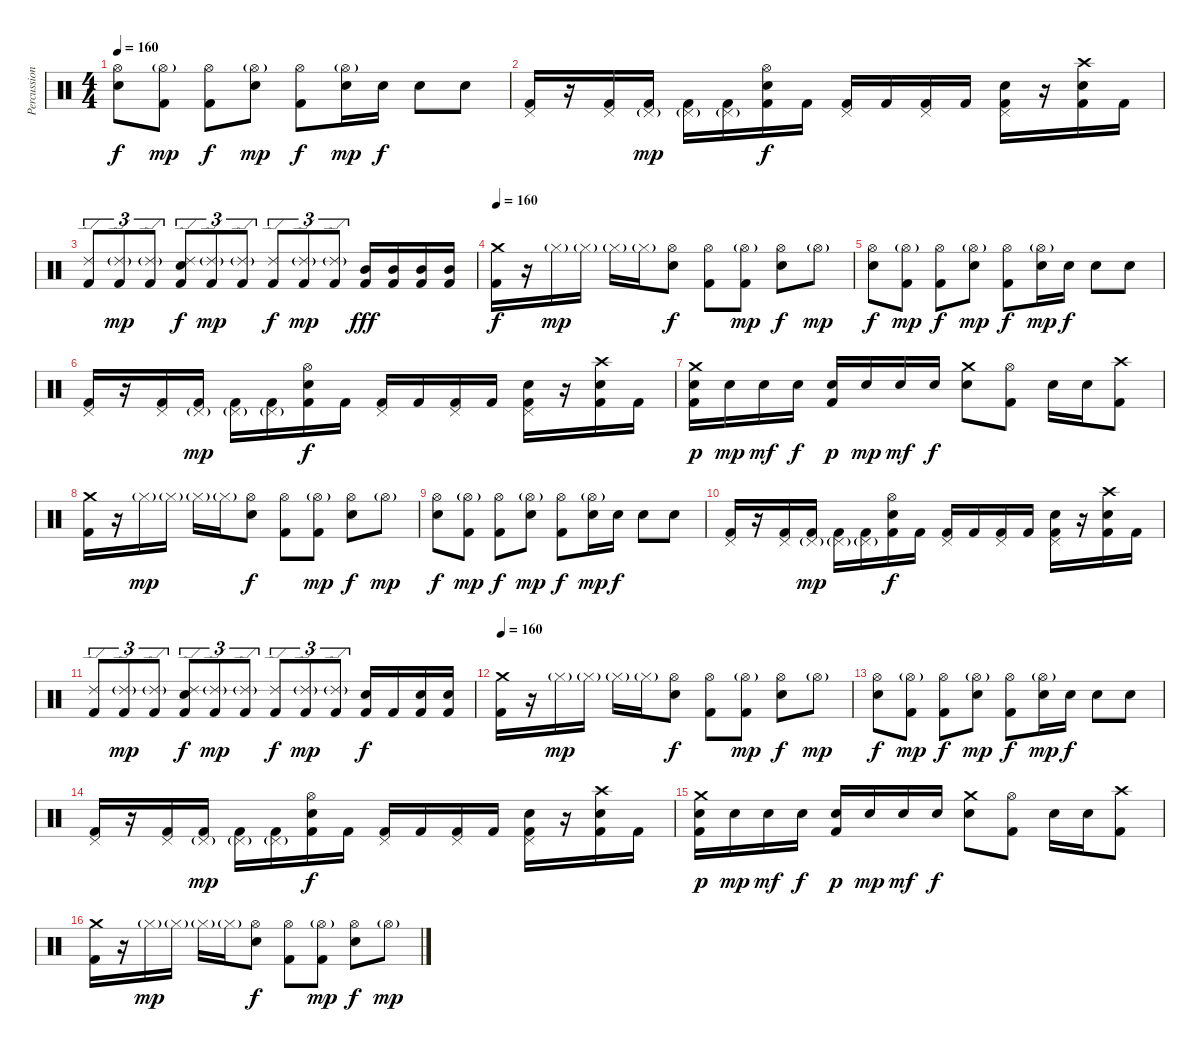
\track ("Percussions" "Percussion") {instrument percussion}
\staff {score}
\articulation defaults
\ts (4 4)
\tempo 160
\clef neutral
\ks c
("Hi-Hat (open)" "Electric Snare (hit)").8{dy f} ("Hi-Hat (open)"{g} "Kick (hit) 2").8{dy mp} ("Hi-Hat (open)" "Kick (hit) 2").8{dy f} ("Hi-Hat (open)"{g} "Electric Snare (hit)").8{dy mp} ("Hi-Hat (open)" "Kick (hit) 2").8{dy f} ("Hi-Hat (open)"{g} "Electric Snare (hit)").16{dy mp} "Electric Snare (hit)".16{dy f} "Electric Snare (hit)".8 "Snare (hit) 2".8 |
("Kick (hit) 2" "Pedal Hi-Hat (hit)").16 r.16 ("Kick (hit) 2" "Pedal Hi-Hat (hit)").16 ("Kick (hit) 2" "Pedal Hi-Hat (hit)"{g}).16{dy mp} ("Kick (hit) 2" "Pedal Hi-Hat (hit)"{g}).16 ("Kick (hit) 2" "Pedal Hi-Hat (hit)"{g}).16 ("Kick (hit) 2" "Electric Snare (hit)" "Hi-Hat (open)").16{dy f} "Kick (hit) 2".16 ("Kick (hit) 2" "Pedal Hi-Hat (hit)").16 "Kick (hit) 2".16 ("Kick (hit) 2" "Pedal Hi-Hat (hit)").16 "Kick (hit) 2".16 ("Kick (hit) 2" "Electric Snare (hit)" "Pedal Hi-Hat (hit)").16 r.16 ("Kick (hit) 2" "Electric Snare (hit)" "Crash high (hit)").16 "Kick (hit) 2".16 |
("Kick (hit) 2" "Ride (edge) 2").8{tu (3 2)} ("Kick (hit) 2" "Ride (edge) 2"{g}).8{tu (3 2) dy mp} ("Kick (hit) 2" "Ride (edge) 2"{g}).8{tu (3 2)} ("Kick (hit) 2" "Electric Snare (hit)" "Ride (edge) 2").8{tu (3 2) dy f} ("Kick (hit) 2" "Ride (edge) 2"{g}).8{tu (3 2) dy mp} ("Kick (hit) 2" "Ride (edge) 2"{g}).8{tu (3 2)} ("Kick (hit) 2" "Ride (edge) 2").8{tu (3 2) dy f} ("Kick (hit) 2" "Ride (edge) 2"{g}).8{tu (3 2) dy mp} ("Kick (hit) 2" "Ride (edge) 2"{g}).8{tu (3 2)} ("Kick (hit) 2" "Mid Tom (hit)").16{dy fff} ("Kick (hit) 2" "Mid Tom (hit)").16 ("Kick (hit) 2" "Mid Tom (hit)").16 ("Kick (hit) 2" "Mid Tom (hit)").16 |
\tempo 160
("Crash medium (hit)" "Kick (hit) 2").16{dy f} r.16 "Hi-Hat (closed)"{g}.16{dy mp} "Hi-Hat (closed)"{g}.16 "Hi-Hat (closed)"{g}.16 "Hi-Hat (closed)"{g}.16 ("Hi-Hat (open)" "Electric Snare (hit)").8{dy f} ("Hi-Hat (open)" "Kick (hit) 2").8 ("Hi-Hat (open)"{g} "Kick (hit) 2").8{dy mp} ("Hi-Hat (open)" "Electric Snare (hit)").8{dy f} "Hi-Hat (open)"{g}.8{dy mp} |
("Hi-Hat (open)" "Electric Snare (hit)").8{dy f} ("Hi-Hat (open)"{g} "Kick (hit) 2").8{dy mp} ("Hi-Hat (open)" "Kick (hit) 2").8{dy f} ("Hi-Hat (open)"{g} "Electric Snare (hit)").8{dy mp} ("Hi-Hat (open)" "Kick (hit) 2").8{dy f} ("Hi-Hat (open)"{g} "Electric Snare (hit)").16{dy mp} "Electric Snare (hit)".16{dy f} "Electric Snare (hit)".8 "Snare (hit) 2".8 |
("Kick (hit) 2" "Pedal Hi-Hat (hit)").16 r.16 ("Kick (hit) 2" "Pedal Hi-Hat (hit)").16 ("Kick (hit) 2" "Pedal Hi-Hat (hit)"{g}).16{dy mp} ("Kick (hit) 2" "Pedal Hi-Hat (hit)"{g}).16 ("Kick (hit) 2" "Pedal Hi-Hat (hit)"{g}).16 ("Kick (hit) 2" "Electric Snare (hit)" "Hi-Hat (open)").16{dy f} "Kick (hit) 2".16 ("Kick (hit) 2" "Pedal Hi-Hat (hit)").16 "Kick (hit) 2".16 ("Kick (hit) 2" "Pedal Hi-Hat (hit)").16 "Kick (hit) 2".16 ("Kick (hit) 2" "Electric Snare (hit)" "Pedal Hi-Hat (hit)").16 r.16 ("Kick (hit) 2" "Electric Snare (hit)" "Crash high (hit)").16 "Kick (hit) 2".16 |
("Electric Snare (hit)" "Crash medium (hit)" "Kick (hit) 2").16{dy p} "Electric Snare (hit)".16{dy mp} "Electric Snare (hit)".16{dy mf} "Electric Snare (hit)".16{dy f} ("Electric Snare (hit)" "Kick (hit) 2").16{dy p} "Electric Snare (hit)".16{dy mp} "Electric Snare (hit)".16{dy mf} "Electric Snare (hit)".16{dy f} ("Electric Snare (hit)" "Crash medium (hit)").8 ("Kick (hit) 2" "Hi-Hat (open)").8 "Electric Snare (hit)".16 "Electric Snare (hit)".16 ("Kick (hit) 2" "Crash high (hit)").8 |
("Crash medium (hit)" "Kick (hit) 2").16 r.16 "Hi-Hat (closed)"{g}.16{dy mp} "Hi-Hat (closed)"{g}.16 "Hi-Hat (closed)"{g}.16 "Hi-Hat (closed)"{g}.16 ("Hi-Hat (open)" "Electric Snare (hit)").8{dy f} ("Hi-Hat (open)" "Kick (hit) 2").8 ("Hi-Hat (open)"{g} "Kick (hit) 2").8{dy mp} ("Hi-Hat (open)" "Electric Snare (hit)").8{dy f} "Hi-Hat (open)"{g}.8{dy mp} |
("Hi-Hat (open)" "Electric Snare (hit)").8{dy f} ("Hi-Hat (open)"{g} "Kick (hit) 2").8{dy mp} ("Hi-Hat (open)" "Kick (hit) 2").8{dy f} ("Hi-Hat (open)"{g} "Electric Snare (hit)").8{dy mp} ("Hi-Hat (open)" "Kick (hit) 2").8{dy f} ("Hi-Hat (open)"{g} "Electric Snare (hit)").16{dy mp} "Electric Snare (hit)".16{dy f} "Electric Snare (hit)".8 "Snare (hit) 2".8 |
("Kick (hit) 2" "Pedal Hi-Hat (hit)").16 r.16 ("Kick (hit) 2" "Pedal Hi-Hat (hit)").16 ("Kick (hit) 2" "Pedal Hi-Hat (hit)"{g}).16{dy mp} ("Kick (hit) 2" "Pedal Hi-Hat (hit)"{g}).16 ("Kick (hit) 2" "Pedal Hi-Hat (hit)"{g}).16 ("Kick (hit) 2" "Electric Snare (hit)" "Hi-Hat (open)").16{dy f} "Kick (hit) 2".16 ("Kick (hit) 2" "Pedal Hi-Hat (hit)").16 "Kick (hit) 2".16 ("Kick (hit) 2" "Pedal Hi-Hat (hit)").16 "Kick (hit) 2".16 ("Kick (hit) 2" "Electric Snare (hit)" "Pedal Hi-Hat (hit)").16 r.16 ("Kick (hit) 2" "Electric Snare (hit)" "Crash high (hit)").16 "Kick (hit) 2".16 |
("Kick (hit) 2" "Ride (edge) 2").8{tu (3 2)} ("Kick (hit) 2" "Ride (edge) 2"{g}).8{tu (3 2) dy mp} ("Kick (hit) 2" "Ride (edge) 2"{g}).8{tu (3 2)} ("Kick (hit) 2" "Electric Snare (hit)" "Ride (edge) 2").8{tu (3 2) dy f} ("Kick (hit) 2" "Ride (edge) 2"{g}).8{tu (3 2) dy mp} ("Kick (hit) 2" "Ride (edge) 2"{g}).8{tu (3 2)} ("Kick (hit) 2" "Ride (edge) 2").8{tu (3 2) dy f} ("Kick (hit) 2" "Ride (edge) 2"{g}).8{tu (3 2) dy mp} ("Kick (hit) 2" "Ride (edge) 2"{g}).8{tu (3 2)} ("Kick (hit) 2" "Electric Snare (hit)").16{dy f} "Kick (hit) 2".16 ("Kick (hit) 2" "Snare (hit) 2").16 ("Kick (hit) 2" "Snare (hit) 2").16 |
\tempo 160
("Crash medium (hit)" "Kick (hit) 2").16 r.16 "Hi-Hat (closed)"{g}.16{dy mp} "Hi-Hat (closed)"{g}.16 "Hi-Hat (closed)"{g}.16 "Hi-Hat (closed)"{g}.16 ("Hi-Hat (open)" "Electric Snare (hit)").8{dy f} ("Hi-Hat (open)" "Kick (hit) 2").8 ("Hi-Hat (open)"{g} "Kick (hit) 2").8{dy mp} ("Hi-Hat (open)" "Electric Snare (hit)").8{dy f} "Hi-Hat (open)"{g}.8{dy mp} |
("Hi-Hat (open)" "Electric Snare (hit)").8{dy f} ("Hi-Hat (open)"{g} "Kick (hit) 2").8{dy mp} ("Hi-Hat (open)" "Kick (hit) 2").8{dy f} ("Hi-Hat (open)"{g} "Electric Snare (hit)").8{dy mp} ("Hi-Hat (open)" "Kick (hit) 2").8{dy f} ("Hi-Hat (open)"{g} "Electric Snare (hit)").16{dy mp} "Electric Snare (hit)".16{dy f} "Electric Snare (hit)".8 "Snare (hit) 2".8 |
("Kick (hit) 2" "Pedal Hi-Hat (hit)").16 r.16 ("Kick (hit) 2" "Pedal Hi-Hat (hit)").16 ("Kick (hit) 2" "Pedal Hi-Hat (hit)"{g}).16{dy mp} ("Kick (hit) 2" "Pedal Hi-Hat (hit)"{g}).16 ("Kick (hit) 2" "Pedal Hi-Hat (hit)"{g}).16 ("Kick (hit) 2" "Electric Snare (hit)" "Hi-Hat (open)").16{dy f} "Kick (hit) 2".16 ("Kick (hit) 2" "Pedal Hi-Hat (hit)").16 "Kick (hit) 2".16 ("Kick (hit) 2" "Pedal Hi-Hat (hit)").16 "Kick (hit) 2".16 ("Kick (hit) 2" "Electric Snare (hit)" "Pedal Hi-Hat (hit)").16 r.16 ("Kick (hit) 2" "Electric Snare (hit)" "Crash high (hit)").16 "Kick (hit) 2".16 |
("Electric Snare (hit)" "Crash medium (hit)" "Kick (hit) 2").16{dy p} "Electric Snare (hit)".16{dy mp} "Electric Snare (hit)".16{dy mf} "Electric Snare (hit)".16{dy f} ("Electric Snare (hit)" "Kick (hit) 2").16{dy p} "Electric Snare (hit)".16{dy mp} "Electric Snare (hit)".16{dy mf} "Electric Snare (hit)".16{dy f} ("Electric Snare (hit)" "Crash medium (hit)").8 ("Kick (hit) 2" "Hi-Hat (open)").8 "Electric Snare (hit)".16 "Electric Snare (hit)".16 ("Kick (hit) 2" "Crash high (hit)").8 |
("Crash medium (hit)" "Kick (hit) 2").16 r.16 "Hi-Hat (closed)"{g}.16{dy mp} "Hi-Hat (closed)"{g}.16 "Hi-Hat (closed)"{g}.16 "Hi-Hat (closed)"{g}.16 ("Hi-Hat (open)" "Electric Snare (hit)").8{dy f} ("Hi-Hat (open)" "Kick (hit) 2").8 ("Hi-Hat (open)"{g} "Kick (hit) 2").8{dy mp} ("Hi-Hat (open)" "Electric Snare (hit)").8{dy f} "Hi-Hat (open)"{g}.8{dy mp}
